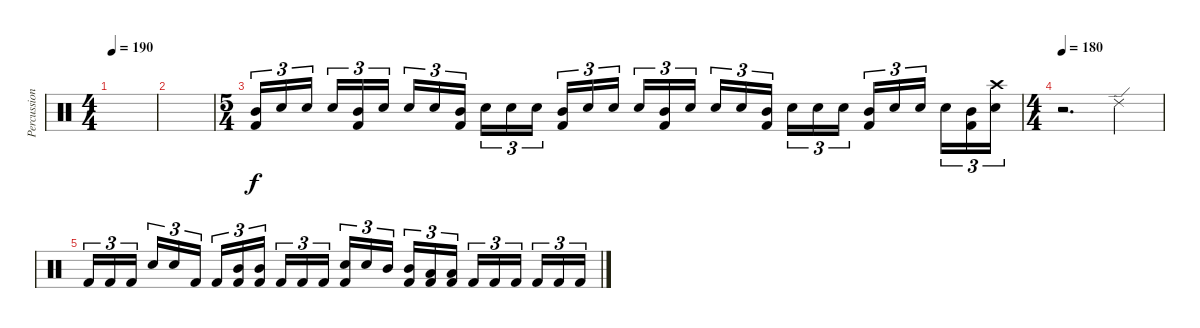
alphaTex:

\track ("Percussion" "Percussion") {instrument percussion}
\staff {score}
\articulation defaults
\ts (4 4)
\tempo 190
\clef neutral
\ks c
|
|
\ts (5 4)
("Mid Tom (hit)" "Kick (hit) 2").16{tu (3 2)} "Electric Snare (hit)".16{tu (3 2)} "Electric Snare (hit)".16{tu (3 2)} "Electric Snare (hit)".16{tu (3 2)} ("Mid Tom (hit)" "Kick (hit) 2").16{tu (3 2)} "Electric Snare (hit)".16{tu (3 2)} "Electric Snare (hit)".16{tu (3 2)} "Electric Snare (hit)".16{tu (3 2)} ("Mid Tom (hit)" "Kick (hit) 2").16{tu (3 2)} "Electric Snare (hit)".16{tu (3 2)} "Electric Snare (hit)".16{tu (3 2)} "Electric Snare (hit)".16{tu (3 2)} ("Mid Tom (hit)" "Kick (hit) 2").16{tu (3 2)} "Electric Snare (hit)".16{tu (3 2)} "Electric Snare (hit)".16{tu (3 2)} "Electric Snare (hit)".16{tu (3 2)} ("Mid Tom (hit)" "Kick (hit) 2").16{tu (3 2)} "Electric Snare (hit)".16{tu (3 2)} "Electric Snare (hit)".16{tu (3 2)} "Electric Snare (hit)".16{tu (3 2)} ("Mid Tom (hit)" "Kick (hit) 2").16{tu (3 2)} "Electric Snare (hit)".16{tu (3 2)} "Electric Snare (hit)".16{tu (3 2)} "Electric Snare (hit)".16{tu (3 2)} ("Mid Tom (hit)" "Kick (hit) 2").16{tu (3 2)} "Electric Snare (hit)".16{tu (3 2)} "Electric Snare (hit)".16{tu (3 2)} "Electric Snare (hit)".16{tu (3 2)} ("Mid Tom (hit)" "Kick (hit) 2").16{tu (3 2)} ("Crash high (hit)" "Electric Snare (hit)").16{tu (3 2)} |
\ts (4 4)
\tempo 180
r.2{d} "Ride (edge) 2".4 |
"Kick (hit) 2".16{tu (3 2)} "Kick (hit) 2".16{tu (3 2)} "Kick (hit) 2".16{tu (3 2)} "Electric Snare (hit)".16{tu (3 2)} "Electric Snare (hit)".16{tu (3 2)} "Kick (hit) 2".16{tu (3 2)} "Kick (hit) 2".16{tu (3 2)} ("Mid Tom (hit)" "Kick (hit) 2").16{tu (3 2)} ("Mid Tom (hit)" "Kick (hit) 2").16{tu (3 2)} "Kick (hit) 2".16{tu (3 2)} "Kick (hit) 2".16{tu (3 2)} "Kick (hit) 2".16{tu (3 2)} ("Electric Snare (hit)" "Kick (hit) 2").16{tu (3 2)} "Electric Snare (hit)".16{tu (3 2)} "Mid Tom (hit)".16{tu (3 2)} ("Mid Tom (hit)" "Kick (hit) 2").16{tu (3 2)} ("Low Tom (hit)" "Kick (hit) 2").16{tu (3 2)} ("Low Tom (hit)" "Kick (hit) 2").16{tu (3 2)} "Kick (hit) 2".16{tu (3 2)} "Kick (hit) 2".16{tu (3 2)} "Kick (hit) 2".16{tu (3 2)} "Kick (hit) 2".16{tu (3 2)} "Kick (hit) 2".16{tu (3 2)} "Kick (hit) 2".16{tu (3 2)}
